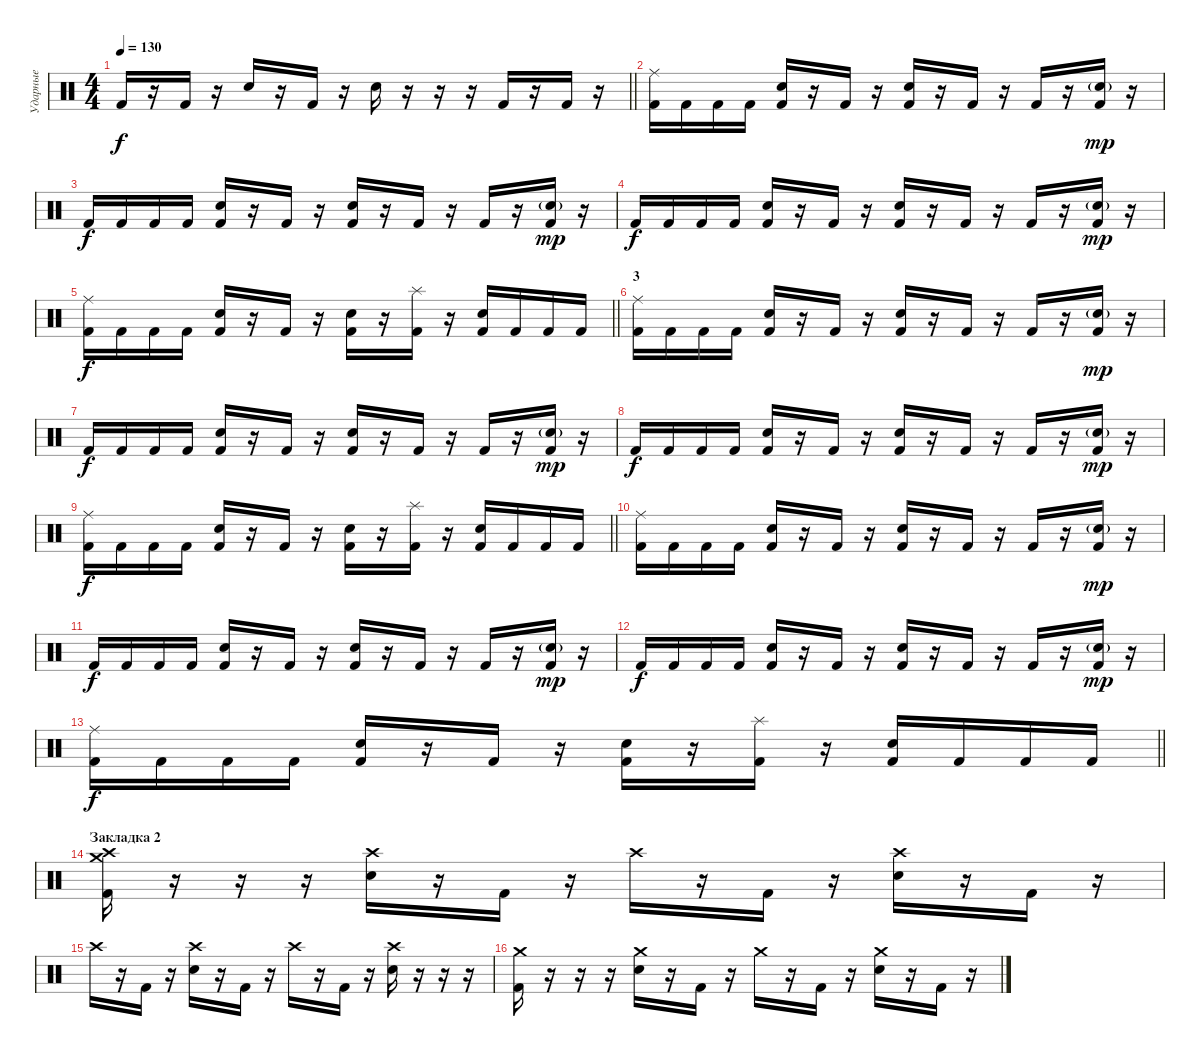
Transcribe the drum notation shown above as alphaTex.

\track ("Ударные" "Ударные") {instrument percussion}
\staff {score}
\articulation defaults
\ts (4 4)
\tempo 130
\clef neutral
\barLineRight lightlight
\ks c "Kick (hit) 2".16{dy f}
r.16 "Kick (hit) 2".16 r.16 "Snare (hit) 2".16 r.16 "Kick (hit) 2".16 r.16 "Snare (hit) 2".16 r.16 r.16 r.16 "Kick (hit) 2".16 r.16 "Kick (hit) 2".16 r.16 |
("Ride (middle)" "Kick (hit) 2").16 "Kick (hit) 2".16 "Kick (hit) 2".16 "Kick (hit) 2".16 ("Snare (hit) 2" "Kick (hit) 2").16 r.16 "Kick (hit) 2".16 r.16 ("Snare (hit) 2" "Kick (hit) 2").16 r.16 "Kick (hit) 2".16 r.16 "Kick (hit) 2".16 r.16 ("Snare (hit) 2"{g} "Kick (hit) 2").16{dy mp} r.16 |
"Kick (hit) 2".16{dy f} "Kick (hit) 2".16 "Kick (hit) 2".16 "Kick (hit) 2".16 ("Snare (hit) 2" "Kick (hit) 2").16 r.16 "Kick (hit) 2".16 r.16 ("Snare (hit) 2" "Kick (hit) 2").16 r.16 "Kick (hit) 2".16 r.16 "Kick (hit) 2".16 r.16 ("Snare (hit) 2"{g} "Kick (hit) 2").16{dy mp} r.16 |
"Kick (hit) 2".16{dy f} "Kick (hit) 2".16 "Kick (hit) 2".16 "Kick (hit) 2".16 ("Snare (hit) 2" "Kick (hit) 2").16 r.16 "Kick (hit) 2".16 r.16 ("Snare (hit) 2" "Kick (hit) 2").16 r.16 "Kick (hit) 2".16 r.16 "Kick (hit) 2".16 r.16 ("Snare (hit) 2"{g} "Kick (hit) 2").16{dy mp} r.16 |
\barLineRight lightlight
("Ride (middle)" "Kick (hit) 2").16{dy f} "Kick (hit) 2".16 "Kick (hit) 2".16 "Kick (hit) 2".16 ("Snare (hit) 2" "Kick (hit) 2").16 r.16 "Kick (hit) 2".16 r.16 ("Snare (hit) 2" "Kick (hit) 2").16 r.16 ("Splash (hit)" "Kick (hit) 2").16 r.16 ("Snare (hit) 2" "Kick (hit) 2").16 "Kick (hit) 2".16 "Kick (hit) 2".16 "Kick (hit) 2".16 |
\section ("" "3")
("Ride (middle)" "Kick (hit) 2").16 "Kick (hit) 2".16 "Kick (hit) 2".16 "Kick (hit) 2".16 ("Snare (hit) 2" "Kick (hit) 2").16 r.16 "Kick (hit) 2".16 r.16 ("Snare (hit) 2" "Kick (hit) 2").16 r.16 "Kick (hit) 2".16 r.16 "Kick (hit) 2".16 r.16 ("Snare (hit) 2"{g} "Kick (hit) 2").16{dy mp} r.16 |
"Kick (hit) 2".16{dy f} "Kick (hit) 2".16 "Kick (hit) 2".16 "Kick (hit) 2".16 ("Snare (hit) 2" "Kick (hit) 2").16 r.16 "Kick (hit) 2".16 r.16 ("Snare (hit) 2" "Kick (hit) 2").16 r.16 "Kick (hit) 2".16 r.16 "Kick (hit) 2".16 r.16 ("Snare (hit) 2"{g} "Kick (hit) 2").16{dy mp} r.16 |
"Kick (hit) 2".16{dy f} "Kick (hit) 2".16 "Kick (hit) 2".16 "Kick (hit) 2".16 ("Snare (hit) 2" "Kick (hit) 2").16 r.16 "Kick (hit) 2".16 r.16 ("Snare (hit) 2" "Kick (hit) 2").16 r.16 "Kick (hit) 2".16 r.16 "Kick (hit) 2".16 r.16 ("Snare (hit) 2"{g} "Kick (hit) 2").16{dy mp} r.16 |
\barLineRight lightlight
("Ride (middle)" "Kick (hit) 2").16{dy f} "Kick (hit) 2".16 "Kick (hit) 2".16 "Kick (hit) 2".16 ("Snare (hit) 2" "Kick (hit) 2").16 r.16 "Kick (hit) 2".16 r.16 ("Snare (hit) 2" "Kick (hit) 2").16 r.16 ("Splash (hit)" "Kick (hit) 2").16 r.16 ("Snare (hit) 2" "Kick (hit) 2").16 "Kick (hit) 2".16 "Kick (hit) 2".16 "Kick (hit) 2".16 |
("Ride (middle)" "Kick (hit) 2").16 "Kick (hit) 2".16 "Kick (hit) 2".16 "Kick (hit) 2".16 ("Snare (hit) 2" "Kick (hit) 2").16 r.16 "Kick (hit) 2".16 r.16 ("Snare (hit) 2" "Kick (hit) 2").16 r.16 "Kick (hit) 2".16 r.16 "Kick (hit) 2".16 r.16 ("Snare (hit) 2"{g} "Kick (hit) 2").16{dy mp} r.16 |
"Kick (hit) 2".16{dy f} "Kick (hit) 2".16 "Kick (hit) 2".16 "Kick (hit) 2".16 ("Snare (hit) 2" "Kick (hit) 2").16 r.16 "Kick (hit) 2".16 r.16 ("Snare (hit) 2" "Kick (hit) 2").16 r.16 "Kick (hit) 2".16 r.16 "Kick (hit) 2".16 r.16 ("Snare (hit) 2"{g} "Kick (hit) 2").16{dy mp} r.16 |
"Kick (hit) 2".16{dy f} "Kick (hit) 2".16 "Kick (hit) 2".16 "Kick (hit) 2".16 ("Snare (hit) 2" "Kick (hit) 2").16 r.16 "Kick (hit) 2".16 r.16 ("Snare (hit) 2" "Kick (hit) 2").16 r.16 "Kick (hit) 2".16 r.16 "Kick (hit) 2".16 r.16 ("Snare (hit) 2"{g} "Kick (hit) 2").16{dy mp} r.16 |
\barLineRight lightlight
("Ride (middle)" "Kick (hit) 2").16{dy f} "Kick (hit) 2".16 "Kick (hit) 2".16 "Kick (hit) 2".16 ("Snare (hit) 2" "Kick (hit) 2").16 r.16 "Kick (hit) 2".16 r.16 ("Snare (hit) 2" "Kick (hit) 2").16 r.16 ("Splash (hit)" "Kick (hit) 2").16 r.16 ("Snare (hit) 2" "Kick (hit) 2").16 "Kick (hit) 2".16 "Kick (hit) 2".16 "Kick (hit) 2".16 |
\section ("" "Закладка 2")
("Crash high (hit)" "Crash medium (hit)" "Kick (hit) 2").16 r.16 r.16 r.16 ("Crash high (hit)" "Snare (hit) 2").16 r.16 "Kick (hit) 2".16 r.16 "Crash high (hit)".16 r.16 "Kick (hit) 2".16 r.16 ("Crash high (hit)" "Snare (hit) 2").16 r.16 "Kick (hit) 2".16 r.16 |
"Crash high (hit)".16 r.16 "Kick (hit) 2".16 r.16 ("Crash high (hit)" "Snare (hit) 2").16 r.16 "Kick (hit) 2".16 r.16 "Crash high (hit)".16 r.16 "Kick (hit) 2".16 r.16 ("Crash high (hit)" "Snare (hit) 2").16 r.16 r.16 r.16 |
("Crash medium (hit)" "Kick (hit) 2").16 r.16 r.16 r.16 ("Crash medium (hit)" "Snare (hit) 2").16 r.16 "Kick (hit) 2".16 r.16 "Crash medium (hit)".16 r.16 "Kick (hit) 2".16 r.16 ("Crash medium (hit)" "Snare (hit) 2").16 r.16 "Kick (hit) 2".16 r.16
